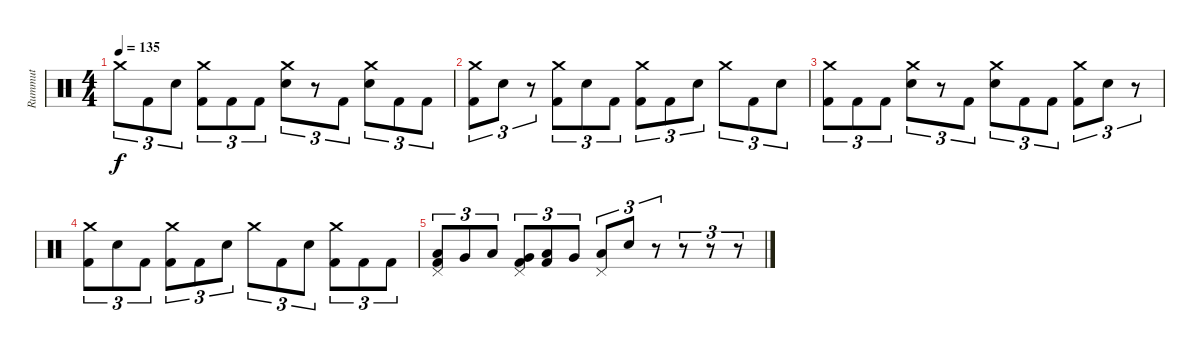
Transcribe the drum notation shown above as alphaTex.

\track ("Rummut" "Rummut") {instrument percussion}
\staff {score}
\articulation defaults
\ts (4 4)
\tempo 135
\clef neutral
\ks c "Crash medium (hit)".8{tu (3 2) dy f} "Kick (hit) 2".8{tu (3 2)} "Electric Snare (hit)".8{tu (3 2)}
("Crash medium (hit)" "Kick (hit) 2").8{tu (3 2)} "Kick (hit) 2".8{tu (3 2)} "Kick (hit) 2".8{tu (3 2)} ("Crash medium (hit)" "Electric Snare (hit)").8{tu (3 2)} r.8{tu (3 2)} "Kick (hit) 2".8{tu (3 2)} ("Crash medium (hit)" "Electric Snare (hit)").8{tu (3 2)} "Kick (hit) 2".8{tu (3 2)} "Kick (hit) 2".8{tu (3 2)} |
("Crash medium (hit)" "Kick (hit) 2").8{tu (3 2)} "Electric Snare (hit)".8{tu (3 2)} r.8{tu (3 2)} ("Crash medium (hit)" "Kick (hit) 2").8{tu (3 2)} "Electric Snare (hit)".8{tu (3 2)} "Kick (hit) 2".8{tu (3 2)} ("Crash medium (hit)" "Kick (hit) 2").8{tu (3 2)} "Kick (hit) 2".8{tu (3 2)} "Electric Snare (hit)".8{tu (3 2)} "Crash medium (hit)".8{tu (3 2)} "Kick (hit) 2".8{tu (3 2)} "Electric Snare (hit)".8{tu (3 2)} |
("Crash medium (hit)" "Kick (hit) 2").8{tu (3 2)} "Kick (hit) 2".8{tu (3 2)} "Kick (hit) 2".8{tu (3 2)} ("Crash medium (hit)" "Electric Snare (hit)").8{tu (3 2)} r.8{tu (3 2)} "Kick (hit) 2".8{tu (3 2)} ("Crash medium (hit)" "Electric Snare (hit)").8{tu (3 2)} "Kick (hit) 2".8{tu (3 2)} "Kick (hit) 2".8{tu (3 2)} ("Crash medium (hit)" "Kick (hit) 2").8{tu (3 2)} "Electric Snare (hit)".8{tu (3 2)} r.8{tu (3 2)} |
("Crash medium (hit)" "Kick (hit) 2").8{tu (3 2)} "Electric Snare (hit)".8{tu (3 2)} "Kick (hit) 2".8{tu (3 2)} ("Crash medium (hit)" "Kick (hit) 2").8{tu (3 2)} "Kick (hit) 2".8{tu (3 2)} "Electric Snare (hit)".8{tu (3 2)} "Crash medium (hit)".8{tu (3 2)} "Kick (hit) 2".8{tu (3 2)} "Electric Snare (hit)".8{tu (3 2)} ("Crash medium (hit)" "Kick (hit) 2").8{tu (3 2)} "Kick (hit) 2".8{tu (3 2)} "Kick (hit) 2".8{tu (3 2)} |
("Pedal Hi-Hat (hit)" "Low Floor Tom (hit)" "Kick (hit) 2").8{tu (3 2)} "Very Low Tom (hit)".8{tu (3 2)} "Low Floor Tom (hit)".8{tu (3 2)} ("Pedal Hi-Hat (hit)" "Very Low Tom (hit)" "Kick (hit) 2").8{tu (3 2)} ("Low Floor Tom (hit)" "Kick (hit) 2").8{tu (3 2)} "Very Low Tom (hit)".8{tu (3 2)} ("Pedal Hi-Hat (hit)" "Low Floor Tom (hit)").8{tu (3 2)} "Electric Snare (hit)".8{tu (3 2)} r.8{tu (3 2)} r.8{tu (3 2)} r.8{tu (3 2)} r.8{tu (3 2)}
